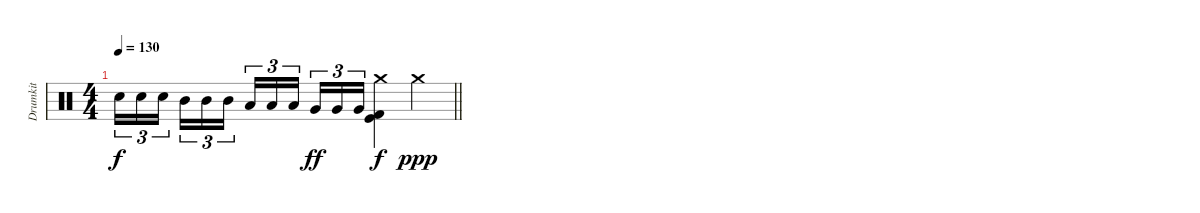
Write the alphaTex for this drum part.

\track ("Drumkit" "Drumkit") {instrument percussion}
\staff {score}
\articulation defaults
\ts (4 4)
\tempo 130
\clef neutral
\barLineRight lightlight
\ks c "Electric Snare (hit)".16{tu (3 2) dy f} "Electric Snare (hit)".16{tu (3 2)} "Electric Snare (hit)".16{tu (3 2) beam splitsecondary} "Mid Tom (hit)".16{tu (3 2)} "Mid Tom (hit)".16{tu (3 2)} "Mid Tom (hit)".16{tu (3 2)} "Low Tom (hit)".16{tu (3 2)} "Low Tom (hit)".16{tu (3 2)} "Low Tom (hit)".16{tu (3 2) beam splitsecondary} "Very Low Tom (hit)".16{tu (3 2) dy ff} "Very Low Tom (hit)".16{tu (3 2)} "Very Low Tom (hit)".16{tu (3 2)}
("Crash medium (hit)" "Kick (hit)" "Kick (hit) 2").4{dy f} "Crash medium (hit)".4{dy ppp}
